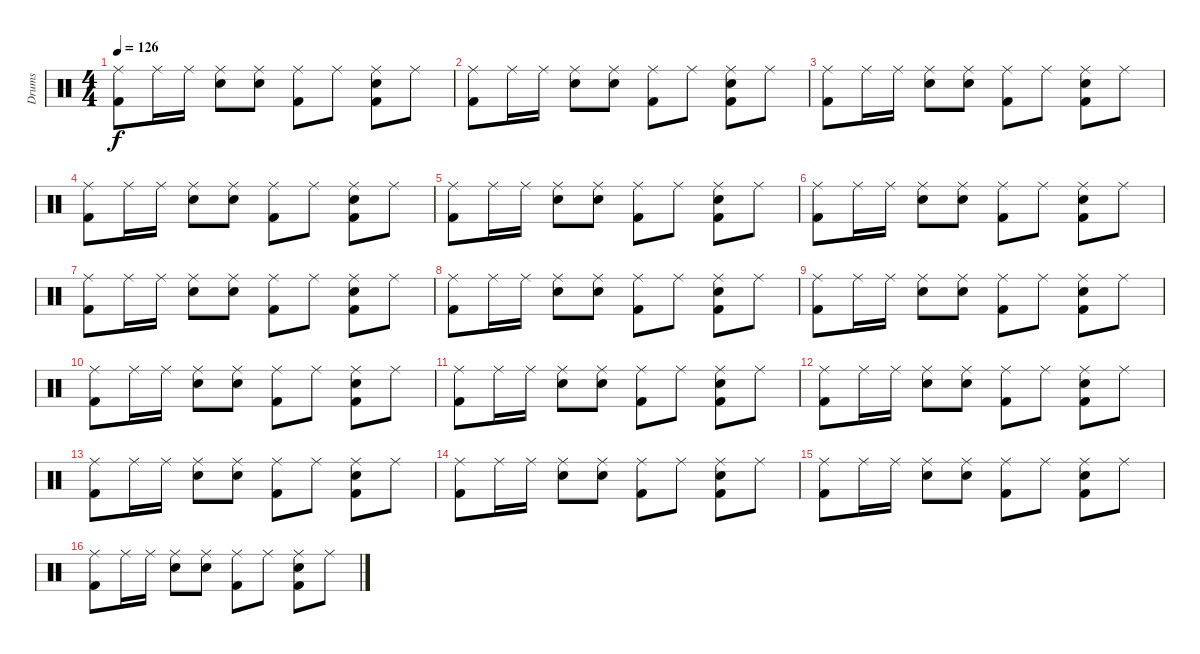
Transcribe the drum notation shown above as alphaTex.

\track ("Drums" "Drums") {instrument percussion}
\staff {score}
\articulation defaults
\ts (4 4)
\tempo 126
\clef neutral
\ks c
("Ride (middle)" "Kick (hit) 2").8{dy f} "Ride (middle)".16 "Ride (middle)".16 ("Ride (middle)" "Snare (hit) 2").8 ("Ride (middle)" "Snare (hit) 2").8 ("Ride (middle)" "Kick (hit) 2").8 "Ride (middle)".8 ("Ride (middle)" "Snare (hit) 2" "Kick (hit) 2").8 "Ride (middle)".8 |
("Ride (middle)" "Kick (hit) 2").8 "Ride (middle)".16 "Ride (middle)".16 ("Ride (middle)" "Snare (hit) 2").8 ("Ride (middle)" "Snare (hit) 2").8 ("Ride (middle)" "Kick (hit) 2").8 "Ride (middle)".8 ("Ride (middle)" "Snare (hit) 2" "Kick (hit) 2").8 "Ride (middle)".8 |
("Ride (middle)" "Kick (hit) 2").8 "Ride (middle)".16 "Ride (middle)".16 ("Ride (middle)" "Snare (hit) 2").8 ("Ride (middle)" "Snare (hit) 2").8 ("Ride (middle)" "Kick (hit) 2").8 "Ride (middle)".8 ("Ride (middle)" "Snare (hit) 2" "Kick (hit) 2").8 "Ride (middle)".8 |
("Ride (middle)" "Kick (hit) 2").8 "Ride (middle)".16 "Ride (middle)".16 ("Ride (middle)" "Snare (hit) 2").8 ("Ride (middle)" "Snare (hit) 2").8 ("Ride (middle)" "Kick (hit) 2").8 "Ride (middle)".8 ("Ride (middle)" "Snare (hit) 2" "Kick (hit) 2").8 "Ride (middle)".8 |
("Ride (middle)" "Kick (hit) 2").8 "Ride (middle)".16 "Ride (middle)".16 ("Ride (middle)" "Snare (hit) 2").8 ("Ride (middle)" "Snare (hit) 2").8 ("Ride (middle)" "Kick (hit) 2").8 "Ride (middle)".8 ("Ride (middle)" "Snare (hit) 2" "Kick (hit) 2").8 "Ride (middle)".8 |
("Ride (middle)" "Kick (hit) 2").8 "Ride (middle)".16 "Ride (middle)".16 ("Ride (middle)" "Snare (hit) 2").8 ("Ride (middle)" "Snare (hit) 2").8 ("Ride (middle)" "Kick (hit) 2").8 "Ride (middle)".8 ("Ride (middle)" "Snare (hit) 2" "Kick (hit) 2").8 "Ride (middle)".8 |
("Ride (middle)" "Kick (hit) 2").8 "Ride (middle)".16 "Ride (middle)".16 ("Ride (middle)" "Snare (hit) 2").8 ("Ride (middle)" "Snare (hit) 2").8 ("Ride (middle)" "Kick (hit) 2").8 "Ride (middle)".8 ("Ride (middle)" "Snare (hit) 2" "Kick (hit) 2").8 "Ride (middle)".8 |
("Ride (middle)" "Kick (hit) 2").8 "Ride (middle)".16 "Ride (middle)".16 ("Ride (middle)" "Snare (hit) 2").8 ("Ride (middle)" "Snare (hit) 2").8 ("Ride (middle)" "Kick (hit) 2").8 "Ride (middle)".8 ("Ride (middle)" "Snare (hit) 2" "Kick (hit) 2").8 "Ride (middle)".8 |
("Ride (middle)" "Kick (hit) 2").8 "Ride (middle)".16 "Ride (middle)".16 ("Ride (middle)" "Snare (hit) 2").8 ("Ride (middle)" "Snare (hit) 2").8 ("Ride (middle)" "Kick (hit) 2").8 "Ride (middle)".8 ("Ride (middle)" "Snare (hit) 2" "Kick (hit) 2").8 "Ride (middle)".8 |
("Ride (middle)" "Kick (hit) 2").8 "Ride (middle)".16 "Ride (middle)".16 ("Ride (middle)" "Snare (hit) 2").8 ("Ride (middle)" "Snare (hit) 2").8 ("Ride (middle)" "Kick (hit) 2").8 "Ride (middle)".8 ("Ride (middle)" "Snare (hit) 2" "Kick (hit) 2").8 "Ride (middle)".8 |
("Ride (middle)" "Kick (hit) 2").8 "Ride (middle)".16 "Ride (middle)".16 ("Ride (middle)" "Snare (hit) 2").8 ("Ride (middle)" "Snare (hit) 2").8 ("Ride (middle)" "Kick (hit) 2").8 "Ride (middle)".8 ("Ride (middle)" "Snare (hit) 2" "Kick (hit) 2").8 "Ride (middle)".8 |
("Ride (middle)" "Kick (hit) 2").8 "Ride (middle)".16 "Ride (middle)".16 ("Ride (middle)" "Snare (hit) 2").8 ("Ride (middle)" "Snare (hit) 2").8 ("Ride (middle)" "Kick (hit) 2").8 "Ride (middle)".8 ("Ride (middle)" "Snare (hit) 2" "Kick (hit) 2").8 "Ride (middle)".8 |
("Ride (middle)" "Kick (hit) 2").8 "Ride (middle)".16 "Ride (middle)".16 ("Ride (middle)" "Snare (hit) 2").8 ("Ride (middle)" "Snare (hit) 2").8 ("Ride (middle)" "Kick (hit) 2").8 "Ride (middle)".8 ("Ride (middle)" "Snare (hit) 2" "Kick (hit) 2").8 "Ride (middle)".8 |
("Ride (middle)" "Kick (hit) 2").8 "Ride (middle)".16 "Ride (middle)".16 ("Ride (middle)" "Snare (hit) 2").8 ("Ride (middle)" "Snare (hit) 2").8 ("Ride (middle)" "Kick (hit) 2").8 "Ride (middle)".8 ("Ride (middle)" "Snare (hit) 2" "Kick (hit) 2").8 "Ride (middle)".8 |
("Ride (middle)" "Kick (hit) 2").8 "Ride (middle)".16 "Ride (middle)".16 ("Ride (middle)" "Snare (hit) 2").8 ("Ride (middle)" "Snare (hit) 2").8 ("Ride (middle)" "Kick (hit) 2").8 "Ride (middle)".8 ("Ride (middle)" "Snare (hit) 2" "Kick (hit) 2").8 "Ride (middle)".8 |
("Ride (middle)" "Kick (hit) 2").8 "Ride (middle)".16 "Ride (middle)".16 ("Ride (middle)" "Snare (hit) 2").8 ("Ride (middle)" "Snare (hit) 2").8 ("Ride (middle)" "Kick (hit) 2").8 "Ride (middle)".8 ("Ride (middle)" "Snare (hit) 2" "Kick (hit) 2").8 "Ride (middle)".8
